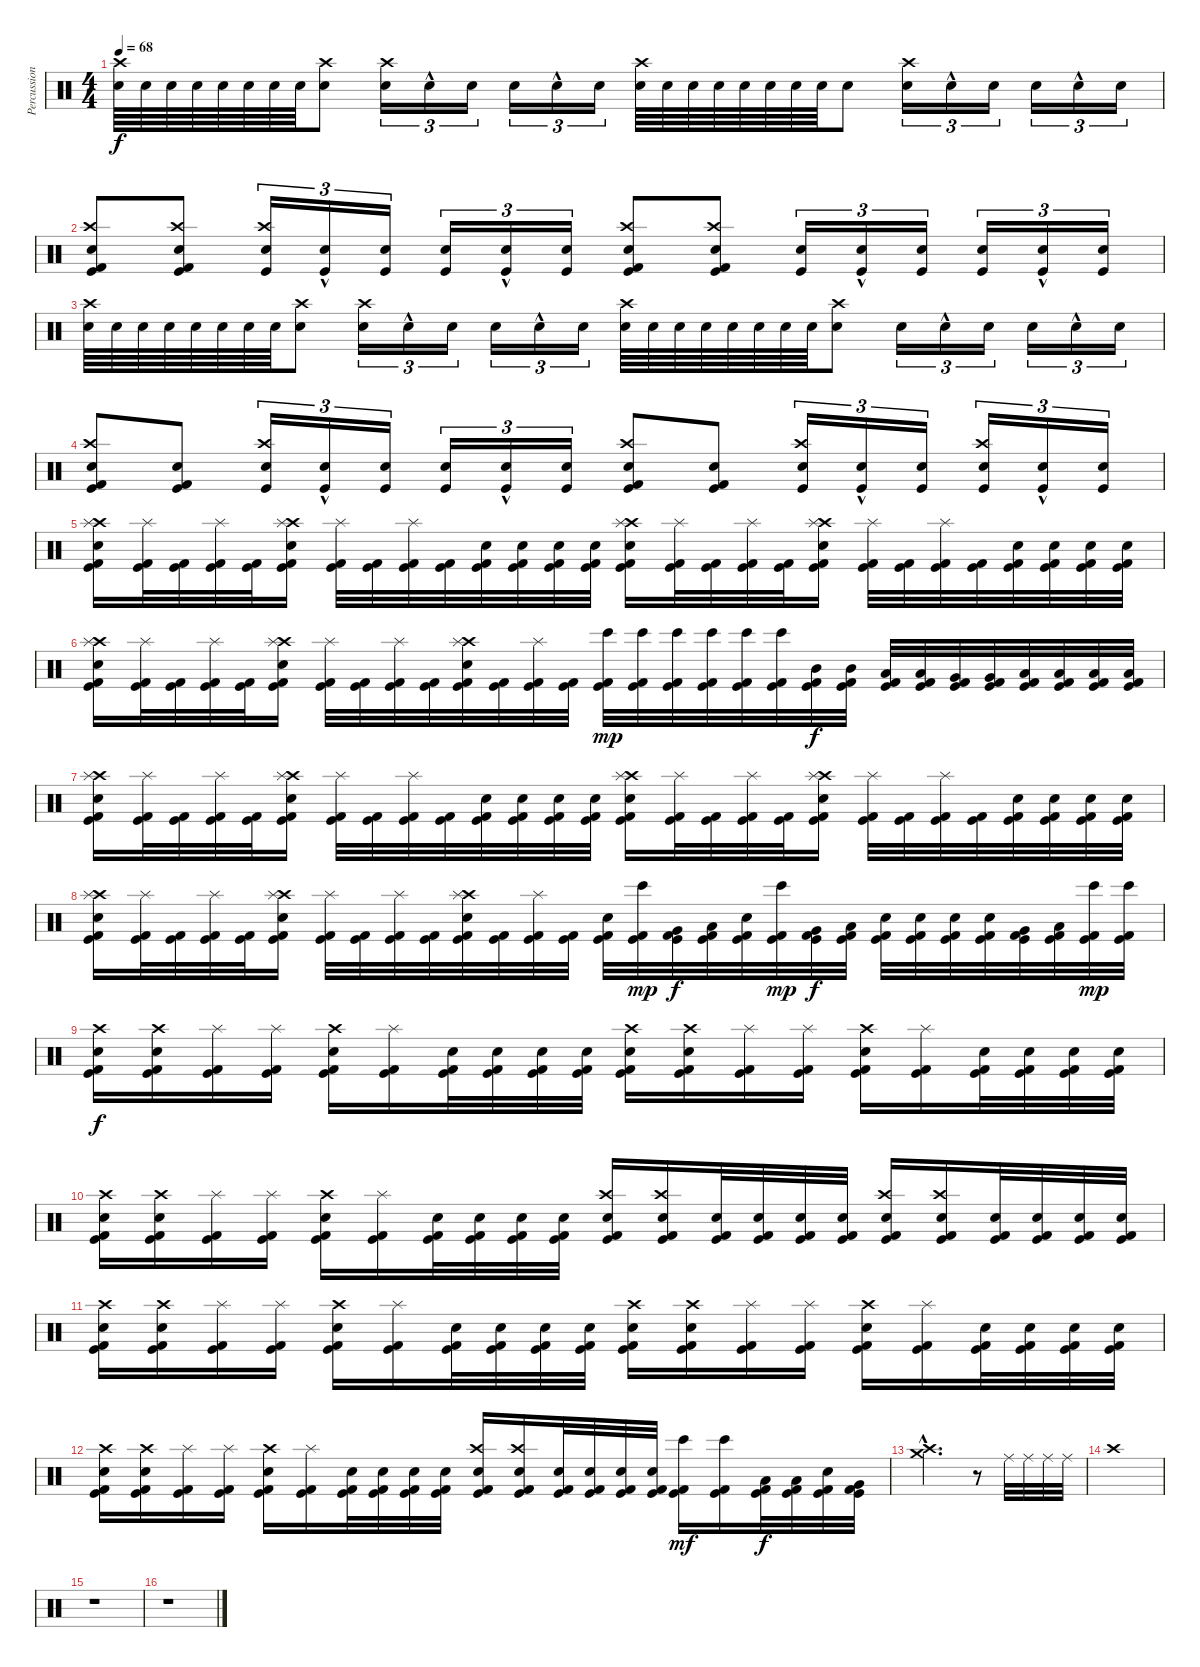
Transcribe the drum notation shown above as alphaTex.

\track ("Percussion" "Percussion") {instrument percussion}
\staff {score}
\articulation defaults
\ts (4 4)
\tempo 68
\clef neutral
\ks c
("Snare (hit) 2" "Crash high (hit)").64{dy f} "Snare (hit) 2".64 "Snare (hit) 2".64 "Snare (hit) 2".64 "Snare (hit) 2".64 "Snare (hit) 2".64 "Snare (hit) 2".64 "Snare (hit) 2".64 ("Snare (hit) 2" "Crash high (hit)").8 ("Snare (hit) 2" "Crash high (hit)").16{tu (3 2)} "Snare (hit) 2"{hac}.16{tu (3 2)} "Snare (hit) 2".16{tu (3 2)} "Snare (hit) 2".16{tu (3 2)} "Snare (hit) 2"{hac}.16{tu (3 2)} "Snare (hit) 2".16{tu (3 2)} ("Snare (hit) 2" "Crash high (hit)").64 "Snare (hit) 2".64 "Snare (hit) 2".64 "Snare (hit) 2".64 "Snare (hit) 2".64 "Snare (hit) 2".64 "Snare (hit) 2".64 "Snare (hit) 2".64 "Snare (hit) 2".8 ("Snare (hit) 2" "Crash high (hit)").16{tu (3 2)} "Snare (hit) 2"{hac}.16{tu (3 2)} "Snare (hit) 2".16{tu (3 2)} "Snare (hit) 2".16{tu (3 2)} "Snare (hit) 2"{hac}.16{tu (3 2)} "Snare (hit) 2".16{tu (3 2)} |
("Kick (hit)" "Kick (hit) 2" "Snare (hit) 2" "Crash high (hit)").8 ("Kick (hit)" "Kick (hit) 2" "Snare (hit) 2" "Crash high (hit)").8 ("Kick (hit)" "Snare (hit) 2" "Crash high (hit)").16{tu (3 2)} ("Kick (hit)"{hac} "Snare (hit) 2"{hac}).16{tu (3 2)} ("Kick (hit)" "Snare (hit) 2").16{tu (3 2)} ("Kick (hit)" "Snare (hit) 2").16{tu (3 2)} ("Kick (hit)"{hac} "Snare (hit) 2"{hac}).16{tu (3 2)} ("Kick (hit)" "Snare (hit) 2").16{tu (3 2)} ("Kick (hit)" "Kick (hit) 2" "Snare (hit) 2" "Crash high (hit)").8 ("Kick (hit)" "Kick (hit) 2" "Snare (hit) 2" "Crash high (hit)").8 ("Kick (hit)" "Snare (hit) 2").16{tu (3 2)} ("Kick (hit)"{hac} "Snare (hit) 2"{hac}).16{tu (3 2)} ("Kick (hit)" "Snare (hit) 2").16{tu (3 2)} ("Kick (hit)" "Snare (hit) 2").16{tu (3 2)} ("Kick (hit)"{hac} "Snare (hit) 2"{hac}).16{tu (3 2)} ("Kick (hit)" "Snare (hit) 2").16{tu (3 2)} |
("Snare (hit) 2" "Crash high (hit)").64 "Snare (hit) 2".64 "Snare (hit) 2".64 "Snare (hit) 2".64 "Snare (hit) 2".64 "Snare (hit) 2".64 "Snare (hit) 2".64 "Snare (hit) 2".64 ("Snare (hit) 2" "Crash high (hit)").8 ("Snare (hit) 2" "Crash high (hit)").16{tu (3 2)} "Snare (hit) 2"{hac}.16{tu (3 2)} "Snare (hit) 2".16{tu (3 2)} "Snare (hit) 2".16{tu (3 2)} "Snare (hit) 2"{hac}.16{tu (3 2)} "Snare (hit) 2".16{tu (3 2)} ("Snare (hit) 2" "Crash high (hit)").64 "Snare (hit) 2".64 "Snare (hit) 2".64 "Snare (hit) 2".64 "Snare (hit) 2".64 "Snare (hit) 2".64 "Snare (hit) 2".64 "Snare (hit) 2".64 ("Snare (hit) 2" "Crash high (hit)").8 "Snare (hit) 2".16{tu (3 2)} "Snare (hit) 2"{hac}.16{tu (3 2)} "Snare (hit) 2".16{tu (3 2)} "Snare (hit) 2".16{tu (3 2)} "Snare (hit) 2"{hac}.16{tu (3 2)} "Snare (hit) 2".16{tu (3 2)} |
("Kick (hit)" "Kick (hit) 2" "Snare (hit) 2" "Crash high (hit)").8 ("Kick (hit)" "Kick (hit) 2" "Snare (hit) 2").8 ("Kick (hit)" "Snare (hit) 2" "Crash high (hit)").16{tu (3 2)} ("Kick (hit)"{hac} "Snare (hit) 2"{hac}).16{tu (3 2)} ("Kick (hit)" "Snare (hit) 2").16{tu (3 2)} ("Kick (hit)" "Snare (hit) 2").16{tu (3 2)} ("Kick (hit)"{hac} "Snare (hit) 2"{hac}).16{tu (3 2)} ("Kick (hit)" "Snare (hit) 2").16{tu (3 2)} ("Kick (hit)" "Kick (hit) 2" "Snare (hit) 2" "Crash high (hit)").8 ("Kick (hit)" "Kick (hit) 2" "Snare (hit) 2").8 ("Kick (hit)" "Snare (hit) 2" "Crash high (hit)").16{tu (3 2)} ("Kick (hit)"{hac} "Snare (hit) 2"{hac}).16{tu (3 2)} ("Kick (hit)" "Snare (hit) 2").16{tu (3 2)} ("Kick (hit)" "Snare (hit) 2" "Crash high (hit)").16{tu (3 2)} ("Kick (hit)"{hac} "Snare (hit) 2"{hac}).16{tu (3 2)} ("Kick (hit)" "Snare (hit) 2").16{tu (3 2)} |
\section ("" "")
("Kick (hit)" "Kick (hit) 2" "Snare (hit) 2" "Crash high (hit)" "Splash (hit)").16 ("Kick (hit)" "Kick (hit) 2" "Splash (hit)").32 ("Kick (hit)" "Kick (hit) 2").32 ("Kick (hit)" "Kick (hit) 2" "Splash (hit)").32 ("Kick (hit)" "Kick (hit) 2").32 ("Kick (hit)" "Kick (hit) 2" "Snare (hit) 2" "Crash high (hit)" "Splash (hit)").16 ("Kick (hit)" "Kick (hit) 2" "Splash (hit)").32 ("Kick (hit)" "Kick (hit) 2").32 ("Kick (hit)" "Kick (hit) 2" "Splash (hit)").32 ("Kick (hit)" "Kick (hit) 2").32 ("Kick (hit)" "Kick (hit) 2" "Snare (hit) 2").32 ("Kick (hit)" "Kick (hit) 2" "Snare (hit) 2").32 ("Kick (hit)" "Kick (hit) 2" "Snare (hit) 2").32 ("Kick (hit)" "Kick (hit) 2" "Snare (hit) 2").32 ("Kick (hit)" "Kick (hit) 2" "Snare (hit) 2" "Crash high (hit)" "Splash (hit)").16 ("Kick (hit)" "Kick (hit) 2" "Splash (hit)").32 ("Kick (hit)" "Kick (hit) 2").32 ("Kick (hit)" "Kick (hit) 2" "Splash (hit)").32 ("Kick (hit)" "Kick (hit) 2").32 ("Kick (hit)" "Kick (hit) 2" "Snare (hit) 2" "Crash high (hit)" "Splash (hit)").16 ("Kick (hit)" "Kick (hit) 2" "Splash (hit)").32 ("Kick (hit)" "Kick (hit) 2").32 ("Kick (hit)" "Kick (hit) 2" "Splash (hit)").32 ("Kick (hit)" "Kick (hit) 2").32 ("Kick (hit)" "Kick (hit) 2" "Snare (hit) 2").32 ("Kick (hit)" "Kick (hit) 2" "Snare (hit) 2").32 ("Kick (hit)" "Kick (hit) 2" "Snare (hit) 2").32 ("Kick (hit)" "Kick (hit) 2" "Snare (hit) 2").32 |
("Kick (hit)" "Kick (hit) 2" "Snare (hit) 2" "Crash high (hit)" "Splash (hit)").16 ("Kick (hit)" "Kick (hit) 2" "Splash (hit)").32 ("Kick (hit)" "Kick (hit) 2").32 ("Kick (hit)" "Kick (hit) 2" "Splash (hit)").32 ("Kick (hit)" "Kick (hit) 2").32 ("Kick (hit)" "Kick (hit) 2" "Snare (hit) 2" "Crash high (hit)" "Splash (hit)").16 ("Kick (hit)" "Kick (hit) 2" "Splash (hit)").32 ("Kick (hit)" "Kick (hit) 2").32 ("Kick (hit)" "Kick (hit) 2" "Splash (hit)").32 ("Kick (hit)" "Kick (hit) 2").32 ("Kick (hit)" "Kick (hit) 2" "Snare (hit) 2" "Crash high (hit)" "Splash (hit)").32 ("Kick (hit)" "Kick (hit) 2").32 ("Kick (hit)" "Kick (hit) 2" "Splash (hit)").32 ("Kick (hit)" "Kick (hit) 2").32 ("Bongo High (hit)" "Kick (hit)" "Kick (hit) 2").32{dy mp} ("Bongo High (hit)" "Kick (hit)" "Kick (hit) 2").32 ("Bongo High (hit)" "Kick (hit)" "Kick (hit) 2").32 ("Bongo High (hit)" "Kick (hit)" "Kick (hit) 2").32 ("Bongo High (hit)" "Kick (hit)" "Kick (hit) 2").32 ("Bongo High (hit)" "Kick (hit)" "Kick (hit) 2").32 ("Kick (hit)" "Kick (hit) 2" "Mid Tom (hit)").32{dy f} ("Kick (hit)" "Kick (hit) 2" "Mid Tom (hit)").32 ("Kick (hit)" "Kick (hit) 2" "Low Tom (hit)").32 ("Kick (hit)" "Kick (hit) 2" "Low Tom (hit)").32 ("Kick (hit)" "Kick (hit) 2" "Very Low Tom (hit)").32 ("Kick (hit)" "Kick (hit) 2" "Very Low Tom (hit)").32 ("Kick (hit)" "Kick (hit) 2" "Low Floor Tom (hit)").32 ("Kick (hit)" "Kick (hit) 2" "Low Floor Tom (hit)").32 ("Kick (hit)" "Kick (hit) 2" "Low Floor Tom (hit)").32 ("Kick (hit)" "Kick (hit) 2" "Low Floor Tom (hit)").32 |
("Kick (hit)" "Kick (hit) 2" "Snare (hit) 2" "Crash high (hit)" "Splash (hit)").16 ("Kick (hit)" "Kick (hit) 2" "Splash (hit)").32 ("Kick (hit)" "Kick (hit) 2").32 ("Kick (hit)" "Kick (hit) 2" "Splash (hit)").32 ("Kick (hit)" "Kick (hit) 2").32 ("Kick (hit)" "Kick (hit) 2" "Snare (hit) 2" "Crash high (hit)" "Splash (hit)").16 ("Kick (hit)" "Kick (hit) 2" "Splash (hit)").32 ("Kick (hit)" "Kick (hit) 2").32 ("Kick (hit)" "Kick (hit) 2" "Splash (hit)").32 ("Kick (hit)" "Kick (hit) 2").32 ("Kick (hit)" "Kick (hit) 2" "Snare (hit) 2").32 ("Kick (hit)" "Kick (hit) 2" "Snare (hit) 2").32 ("Kick (hit)" "Kick (hit) 2" "Snare (hit) 2").32 ("Kick (hit)" "Kick (hit) 2" "Snare (hit) 2").32 ("Kick (hit)" "Kick (hit) 2" "Snare (hit) 2" "Crash high (hit)" "Splash (hit)").16 ("Kick (hit)" "Kick (hit) 2" "Splash (hit)").32 ("Kick (hit)" "Kick (hit) 2").32 ("Kick (hit)" "Kick (hit) 2" "Splash (hit)").32 ("Kick (hit)" "Kick (hit) 2").32 ("Kick (hit)" "Kick (hit) 2" "Snare (hit) 2" "Crash high (hit)" "Splash (hit)").16 ("Kick (hit)" "Kick (hit) 2" "Splash (hit)").32 ("Kick (hit)" "Kick (hit) 2").32 ("Kick (hit)" "Kick (hit) 2" "Splash (hit)").32 ("Kick (hit)" "Kick (hit) 2").32 ("Kick (hit)" "Kick (hit) 2" "Snare (hit) 2").32 ("Kick (hit)" "Kick (hit) 2" "Snare (hit) 2").32 ("Kick (hit)" "Kick (hit) 2" "Snare (hit) 2").32 ("Kick (hit)" "Kick (hit) 2" "Snare (hit) 2").32 |
("Kick (hit)" "Kick (hit) 2" "Snare (hit) 2" "Crash high (hit)" "Splash (hit)").16 ("Kick (hit)" "Kick (hit) 2" "Splash (hit)").32 ("Kick (hit)" "Kick (hit) 2").32 ("Kick (hit)" "Kick (hit) 2" "Splash (hit)").32 ("Kick (hit)" "Kick (hit) 2").32 ("Kick (hit)" "Kick (hit) 2" "Snare (hit) 2" "Crash high (hit)" "Splash (hit)").16 ("Kick (hit)" "Kick (hit) 2" "Splash (hit)").32 ("Kick (hit)" "Kick (hit) 2").32 ("Kick (hit)" "Kick (hit) 2" "Splash (hit)").32 ("Kick (hit)" "Kick (hit) 2").32 ("Kick (hit)" "Kick (hit) 2" "Snare (hit) 2" "Crash high (hit)" "Splash (hit)").32 ("Kick (hit)" "Kick (hit) 2").32 ("Kick (hit)" "Kick (hit) 2" "Splash (hit)").32 ("Kick (hit)" "Kick (hit) 2").32 ("Kick (hit)" "Kick (hit) 2" "Snare (hit) 2").32 ("Bongo High (hit)" "Kick (hit)" "Kick (hit) 2").32{dy mp} ("Kick (hit)" "Kick (hit) 2" "Very Low Tom (hit)").32{dy f} ("Kick (hit)" "Kick (hit) 2" "Low Floor Tom (hit)").32 ("Kick (hit)" "Kick (hit) 2" "Snare (hit) 2").32 ("Bongo High (hit)" "Kick (hit)" "Kick (hit) 2").32{dy mp} ("Kick (hit)" "Kick (hit) 2" "Very Low Tom (hit)").32{dy f} ("Kick (hit)" "Kick (hit) 2" "Low Floor Tom (hit)").32 ("Kick (hit)" "Kick (hit) 2" "Snare (hit) 2").32 ("Kick (hit)" "Kick (hit) 2" "Snare (hit) 2").32 ("Kick (hit)" "Kick (hit) 2" "Snare (hit) 2").32 ("Kick (hit)" "Kick (hit) 2" "Snare (hit) 2").32 ("Kick (hit)" "Kick (hit) 2" "Very Low Tom (hit)").32 ("Kick (hit)" "Kick (hit) 2" "Low Floor Tom (hit)").32 ("Bongo High (hit)" "Kick (hit)" "Kick (hit) 2").32{dy mp} ("Bongo High (hit)" "Kick (hit)" "Kick (hit) 2").32 |
("Kick (hit)" "Kick (hit) 2" "Snare (hit) 2" "Crash high (hit)").16{dy f} ("Kick (hit)" "Kick (hit) 2" "Snare (hit) 2" "Crash high (hit)").16 ("Kick (hit)" "Kick (hit) 2" "Splash (hit)").16 ("Kick (hit)" "Kick (hit) 2" "Splash (hit)").16 ("Kick (hit)" "Kick (hit) 2" "Snare (hit) 2" "Crash high (hit)").16 ("Kick (hit)" "Kick (hit) 2" "Splash (hit)").16 ("Kick (hit)" "Kick (hit) 2" "Snare (hit) 2").32 ("Kick (hit)" "Kick (hit) 2" "Snare (hit) 2").32 ("Kick (hit)" "Kick (hit) 2" "Snare (hit) 2").32 ("Kick (hit)" "Kick (hit) 2" "Snare (hit) 2").32 ("Kick (hit)" "Kick (hit) 2" "Snare (hit) 2" "Crash high (hit)").16 ("Kick (hit)" "Kick (hit) 2" "Snare (hit) 2" "Crash high (hit)").16 ("Kick (hit)" "Kick (hit) 2" "Splash (hit)").16 ("Kick (hit)" "Kick (hit) 2" "Splash (hit)").16 ("Kick (hit)" "Kick (hit) 2" "Snare (hit) 2" "Crash high (hit)").16 ("Kick (hit)" "Kick (hit) 2" "Splash (hit)").16 ("Kick (hit)" "Kick (hit) 2" "Snare (hit) 2").32 ("Kick (hit)" "Kick (hit) 2" "Snare (hit) 2").32 ("Kick (hit)" "Kick (hit) 2" "Snare (hit) 2").32 ("Kick (hit)" "Kick (hit) 2" "Snare (hit) 2").32 |
("Kick (hit)" "Kick (hit) 2" "Snare (hit) 2" "Crash high (hit)").16 ("Kick (hit)" "Kick (hit) 2" "Snare (hit) 2" "Crash high (hit)").16 ("Kick (hit)" "Kick (hit) 2" "Splash (hit)").16 ("Kick (hit)" "Kick (hit) 2" "Splash (hit)").16 ("Kick (hit)" "Kick (hit) 2" "Snare (hit) 2" "Crash high (hit)").16 ("Kick (hit)" "Kick (hit) 2" "Splash (hit)").16 ("Kick (hit)" "Kick (hit) 2" "Snare (hit) 2").32 ("Kick (hit)" "Kick (hit) 2" "Snare (hit) 2").32 ("Kick (hit)" "Kick (hit) 2" "Snare (hit) 2").32 ("Kick (hit)" "Kick (hit) 2" "Snare (hit) 2").32 ("Kick (hit)" "Kick (hit) 2" "Snare (hit) 2" "Crash high (hit)").16 ("Kick (hit)" "Kick (hit) 2" "Snare (hit) 2" "Crash high (hit)").16 ("Kick (hit)" "Kick (hit) 2" "Snare (hit) 2").32 ("Kick (hit)" "Kick (hit) 2" "Snare (hit) 2").32 ("Kick (hit)" "Kick (hit) 2" "Snare (hit) 2").32 ("Kick (hit)" "Kick (hit) 2" "Snare (hit) 2").32 ("Kick (hit)" "Kick (hit) 2" "Snare (hit) 2" "Crash high (hit)").16 ("Kick (hit)" "Kick (hit) 2" "Snare (hit) 2" "Crash high (hit)").16 ("Kick (hit)" "Kick (hit) 2" "Snare (hit) 2").32 ("Kick (hit)" "Kick (hit) 2" "Snare (hit) 2").32 ("Kick (hit)" "Kick (hit) 2" "Snare (hit) 2").32 ("Kick (hit)" "Kick (hit) 2" "Snare (hit) 2").32 |
("Kick (hit)" "Kick (hit) 2" "Snare (hit) 2" "Crash high (hit)").16 ("Kick (hit)" "Kick (hit) 2" "Snare (hit) 2" "Crash high (hit)").16 ("Kick (hit)" "Kick (hit) 2" "Splash (hit)").16 ("Kick (hit)" "Kick (hit) 2" "Splash (hit)").16 ("Kick (hit)" "Kick (hit) 2" "Snare (hit) 2" "Crash high (hit)").16 ("Kick (hit)" "Kick (hit) 2" "Splash (hit)").16 ("Kick (hit)" "Kick (hit) 2" "Snare (hit) 2").32 ("Kick (hit)" "Kick (hit) 2" "Snare (hit) 2").32 ("Kick (hit)" "Kick (hit) 2" "Snare (hit) 2").32 ("Kick (hit)" "Kick (hit) 2" "Snare (hit) 2").32 ("Kick (hit)" "Kick (hit) 2" "Snare (hit) 2" "Crash high (hit)").16 ("Kick (hit)" "Kick (hit) 2" "Snare (hit) 2" "Crash high (hit)").16 ("Kick (hit)" "Kick (hit) 2" "Splash (hit)").16 ("Kick (hit)" "Kick (hit) 2" "Splash (hit)").16 ("Kick (hit)" "Kick (hit) 2" "Snare (hit) 2" "Crash high (hit)").16 ("Kick (hit)" "Kick (hit) 2" "Splash (hit)").16 ("Kick (hit)" "Kick (hit) 2" "Snare (hit) 2").32 ("Kick (hit)" "Kick (hit) 2" "Snare (hit) 2").32 ("Kick (hit)" "Kick (hit) 2" "Snare (hit) 2").32 ("Kick (hit)" "Kick (hit) 2" "Snare (hit) 2").32 |
("Kick (hit)" "Kick (hit) 2" "Snare (hit) 2" "Crash high (hit)").16 ("Kick (hit)" "Kick (hit) 2" "Snare (hit) 2" "Crash high (hit)").16 ("Kick (hit)" "Kick (hit) 2" "Splash (hit)").16 ("Kick (hit)" "Kick (hit) 2" "Splash (hit)").16 ("Kick (hit)" "Kick (hit) 2" "Snare (hit) 2" "Crash high (hit)").16 ("Kick (hit)" "Kick (hit) 2" "Splash (hit)").16 ("Kick (hit)" "Kick (hit) 2" "Snare (hit) 2").32 ("Kick (hit)" "Kick (hit) 2" "Snare (hit) 2").32 ("Kick (hit)" "Kick (hit) 2" "Snare (hit) 2").32 ("Kick (hit)" "Kick (hit) 2" "Snare (hit) 2").32 ("Kick (hit)" "Kick (hit) 2" "Snare (hit) 2" "Crash high (hit)").16 ("Kick (hit)" "Kick (hit) 2" "Snare (hit) 2" "Crash high (hit)").16 ("Kick (hit)" "Kick (hit) 2" "Snare (hit) 2").32 ("Kick (hit)" "Kick (hit) 2" "Snare (hit) 2").32 ("Kick (hit)" "Kick (hit) 2" "Snare (hit) 2").32 ("Kick (hit)" "Kick (hit) 2" "Snare (hit) 2").32 ("Bongo High (hit)" "Kick (hit)" "Kick (hit) 2").16{dy mf} ("Bongo High (hit)" "Kick (hit)" "Kick (hit) 2").16 ("Kick (hit)" "Kick (hit) 2" "Low Tom (hit)").32{dy f} ("Kick (hit)" "Kick (hit) 2" "Low Tom (hit)").32 ("Snare (hit)" "Kick (hit)" "Kick (hit) 2").32 ("Kick (hit)" "Kick (hit) 2" "Very Low Tom (hit)").32 |
\section ("" "")
("Crash high (hit)"{hac} "Crash medium (hit)"{hac}).2{d} r.8 "Ride (middle)".32 "Ride (middle)".32 "Ride (middle)".32 "Ride (middle)".32 |
"Crash high (hit)".1 |
r.1 |
r.1
